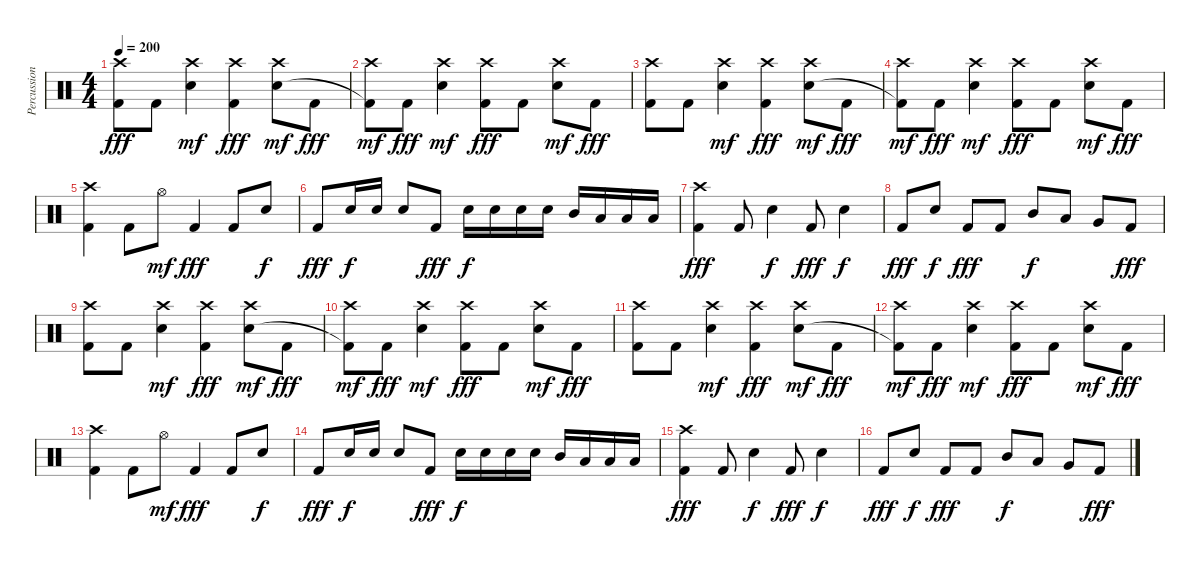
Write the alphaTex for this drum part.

\track ("Percussion" "Percussion") {instrument percussion}
\staff {score}
\articulation defaults
\ts (4 4)
\tempo 200
\clef neutral
\ks c
("Crash high (hit)" "Kick (hit) 2").8{dy fff} "Kick (hit) 2".8 ("Crash high (hit)" "Electric Snare (hit)").4{dy mf} ("Crash high (hit)" "Kick (hit) 2").4{dy fff} ("Crash high (hit)" "Electric Snare (hit)").8{dy mf} "Kick (hit) 2".8{dy fff} |
("Crash high (hit)" "Kick (hit) 2"{t}).8{dy mf} "Kick (hit) 2".8{dy fff} ("Crash high (hit)" "Electric Snare (hit)").4{dy mf} ("Crash high (hit)" "Kick (hit) 2").8{dy fff} "Kick (hit) 2".8 ("Crash high (hit)" "Electric Snare (hit)").8{dy mf} "Kick (hit) 2".8{dy fff} |
("Crash high (hit)" "Kick (hit) 2").8 "Kick (hit) 2".8 ("Crash high (hit)" "Electric Snare (hit)").4{dy mf} ("Crash high (hit)" "Kick (hit) 2").4{dy fff} ("Crash high (hit)" "Electric Snare (hit)").8{dy mf} "Kick (hit) 2".8{dy fff} |
("Crash high (hit)" "Kick (hit) 2"{t}).8{dy mf} "Kick (hit) 2".8{dy fff} ("Crash high (hit)" "Electric Snare (hit)").4{dy mf} ("Crash high (hit)" "Kick (hit) 2").8{dy fff} "Kick (hit) 2".8 ("Crash high (hit)" "Electric Snare (hit)").8{dy mf} "Kick (hit) 2".8{dy fff} |
("Crash high (hit)" "Kick (hit) 2").4 "Kick (hit) 2".8 "Hi-Hat (open)".8{dy mf} "Kick (hit) 2".4{dy fff} "Kick (hit) 2".8 "Electric Snare (hit)".8{dy f} |
"Kick (hit) 2".8{dy fff} "Electric Snare (hit)".16{dy f} "Electric Snare (hit)".16 "Electric Snare (hit)".8 "Kick (hit) 2".8{dy fff} "Electric Snare (hit)".16{dy f} "Electric Snare (hit)".16 "Electric Snare (hit)".16 "Electric Snare (hit)".16 "Mid Tom (hit)".16 "Low Tom (hit)".16 "Low Tom (hit)".16 "Low Tom (hit)".16 |
("Crash high (hit)" "Kick (hit) 2").4{dy fff} "Kick (hit) 2".8 "Electric Snare (hit)".4{dy f} "Kick (hit) 2".8{dy fff} "Electric Snare (hit)".4{dy f} |
"Kick (hit) 2".8{dy fff} "Electric Snare (hit)".8{dy f} "Kick (hit) 2".8{dy fff} "Kick (hit) 2".8 "Mid Tom (hit)".8{dy f} "Low Tom (hit)".8 "Very Low Tom (hit)".8 "Kick (hit) 2".8{dy fff} |
("Crash high (hit)" "Kick (hit) 2").8 "Kick (hit) 2".8 ("Crash high (hit)" "Electric Snare (hit)").4{dy mf} ("Crash high (hit)" "Kick (hit) 2").4{dy fff} ("Crash high (hit)" "Electric Snare (hit)").8{dy mf} "Kick (hit) 2".8{dy fff} |
("Crash high (hit)" "Kick (hit) 2"{t}).8{dy mf} "Kick (hit) 2".8{dy fff} ("Crash high (hit)" "Electric Snare (hit)").4{dy mf} ("Crash high (hit)" "Kick (hit) 2").8{dy fff} "Kick (hit) 2".8 ("Crash high (hit)" "Electric Snare (hit)").8{dy mf} "Kick (hit) 2".8{dy fff} |
("Crash high (hit)" "Kick (hit) 2").8 "Kick (hit) 2".8 ("Crash high (hit)" "Electric Snare (hit)").4{dy mf} ("Crash high (hit)" "Kick (hit) 2").4{dy fff} ("Crash high (hit)" "Electric Snare (hit)").8{dy mf} "Kick (hit) 2".8{dy fff} |
("Crash high (hit)" "Kick (hit) 2"{t}).8{dy mf} "Kick (hit) 2".8{dy fff} ("Crash high (hit)" "Electric Snare (hit)").4{dy mf} ("Crash high (hit)" "Kick (hit) 2").8{dy fff} "Kick (hit) 2".8 ("Crash high (hit)" "Electric Snare (hit)").8{dy mf} "Kick (hit) 2".8{dy fff} |
("Crash high (hit)" "Kick (hit) 2").4 "Kick (hit) 2".8 "Hi-Hat (open)".8{dy mf} "Kick (hit) 2".4{dy fff} "Kick (hit) 2".8 "Electric Snare (hit)".8{dy f} |
"Kick (hit) 2".8{dy fff} "Electric Snare (hit)".16{dy f} "Electric Snare (hit)".16 "Electric Snare (hit)".8 "Kick (hit) 2".8{dy fff} "Electric Snare (hit)".16{dy f} "Electric Snare (hit)".16 "Electric Snare (hit)".16 "Electric Snare (hit)".16 "Mid Tom (hit)".16 "Low Tom (hit)".16 "Low Tom (hit)".16 "Low Tom (hit)".16 |
("Crash high (hit)" "Kick (hit) 2").4{dy fff} "Kick (hit) 2".8 "Electric Snare (hit)".4{dy f} "Kick (hit) 2".8{dy fff} "Electric Snare (hit)".4{dy f} |
"Kick (hit) 2".8{dy fff} "Electric Snare (hit)".8{dy f} "Kick (hit) 2".8{dy fff} "Kick (hit) 2".8 "Mid Tom (hit)".8{dy f} "Low Tom (hit)".8 "Very Low Tom (hit)".8 "Kick (hit) 2".8{dy fff}
